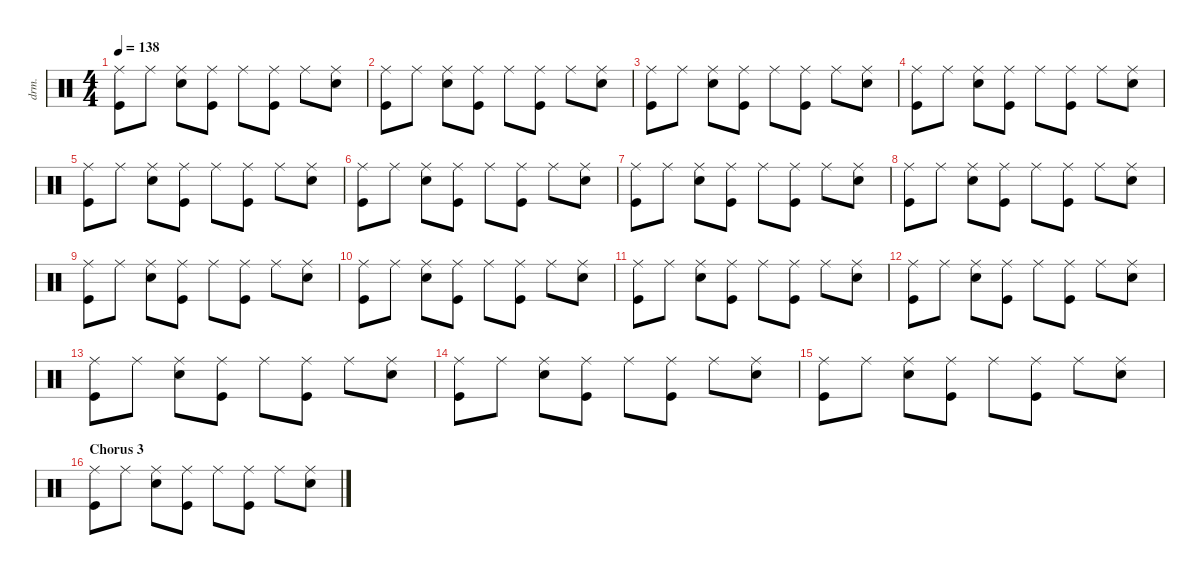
\defaultSystemsLayout 4
\hideDynamics
\bracketExtendMode nobrackets
\otherSystemsTrackNameOrientation horizontal
\track ("Drums" "drm.") {instrument percussion}
\staff {score}
\articulation defaults
\ts (4 4)
\tempo 138
\clef neutral
\ks c
("Ride (middle)" "Kick (hit)").8{dy f beam Down} "Ride (middle)".8{beam Down} ("Ride (middle)" "Snare (hit) 2").8{beam Down} ("Ride (middle)" "Kick (hit)").8{beam Down} "Ride (middle)".8{beam Down} ("Ride (middle)" "Kick (hit)").8{beam Down} "Ride (middle)".8{beam Down} ("Ride (middle)" "Snare (hit) 2").8{beam Down} |
("Ride (middle)" "Kick (hit)").8{beam Down} "Ride (middle)".8{beam Down} ("Ride (middle)" "Snare (hit) 2").8{beam Down} ("Ride (middle)" "Kick (hit)").8{beam Down} "Ride (middle)".8{beam Down} ("Ride (middle)" "Kick (hit)").8{beam Down} "Ride (middle)".8{beam Down} ("Ride (middle)" "Snare (hit) 2").8{beam Down} |
("Ride (middle)" "Kick (hit)").8{beam Down} "Ride (middle)".8{beam Down} ("Ride (middle)" "Snare (hit) 2").8{beam Down} ("Ride (middle)" "Kick (hit)").8{beam Down} "Ride (middle)".8{beam Down} ("Ride (middle)" "Kick (hit)").8{beam Down} "Ride (middle)".8{beam Down} ("Ride (middle)" "Snare (hit) 2").8{beam Down} |
("Ride (middle)" "Kick (hit)").8{beam Down} "Ride (middle)".8{beam Down} ("Ride (middle)" "Snare (hit) 2").8{beam Down} ("Ride (middle)" "Kick (hit)").8{beam Down} "Ride (middle)".8{beam Down} ("Ride (middle)" "Kick (hit)").8{beam Down} "Ride (middle)".8{beam Down} ("Ride (middle)" "Snare (hit) 2").8{beam Down} |
("Ride (middle)" "Kick (hit)").8{beam Down} "Ride (middle)".8{beam Down} ("Ride (middle)" "Snare (hit) 2").8{beam Down} ("Ride (middle)" "Kick (hit)").8{beam Down} "Ride (middle)".8{beam Down} ("Ride (middle)" "Kick (hit)").8{beam Down} "Ride (middle)".8{beam Down} ("Ride (middle)" "Snare (hit) 2").8{beam Down} |
("Ride (middle)" "Kick (hit)").8{beam Down} "Ride (middle)".8{beam Down} ("Ride (middle)" "Snare (hit) 2").8{beam Down} ("Ride (middle)" "Kick (hit)").8{beam Down} "Ride (middle)".8{beam Down} ("Ride (middle)" "Kick (hit)").8{beam Down} "Ride (middle)".8{beam Down} ("Ride (middle)" "Snare (hit) 2").8{beam Down} |
("Ride (middle)" "Kick (hit)").8{beam Down} "Ride (middle)".8{beam Down} ("Ride (middle)" "Snare (hit) 2").8{beam Down} ("Ride (middle)" "Kick (hit)").8{beam Down} "Ride (middle)".8{beam Down} ("Ride (middle)" "Kick (hit)").8{beam Down} "Ride (middle)".8{beam Down} ("Ride (middle)" "Snare (hit) 2").8{beam Down} |
("Ride (middle)" "Kick (hit)").8{beam Down} "Ride (middle)".8{beam Down} ("Ride (middle)" "Snare (hit) 2").8{beam Down} ("Ride (middle)" "Kick (hit)").8{beam Down} "Ride (middle)".8{beam Down} ("Ride (middle)" "Kick (hit)").8{beam Down} "Ride (middle)".8{beam Down} ("Ride (middle)" "Snare (hit) 2").8{beam Down} |
("Ride (middle)" "Kick (hit)").8{beam Down} "Ride (middle)".8{beam Down} ("Ride (middle)" "Snare (hit) 2").8{beam Down} ("Ride (middle)" "Kick (hit)").8{beam Down} "Ride (middle)".8{beam Down} ("Ride (middle)" "Kick (hit)").8{beam Down} "Ride (middle)".8{beam Down} ("Ride (middle)" "Snare (hit) 2").8{beam Down} |
("Ride (middle)" "Kick (hit)").8{beam Down} "Ride (middle)".8{beam Down} ("Ride (middle)" "Snare (hit) 2").8{beam Down} ("Ride (middle)" "Kick (hit)").8{beam Down} "Ride (middle)".8{beam Down} ("Ride (middle)" "Kick (hit)").8{beam Down} "Ride (middle)".8{beam Down} ("Ride (middle)" "Snare (hit) 2").8{beam Down} |
("Ride (middle)" "Kick (hit)").8{beam Down} "Ride (middle)".8{beam Down} ("Ride (middle)" "Snare (hit) 2").8{beam Down} ("Ride (middle)" "Kick (hit)").8{beam Down} "Ride (middle)".8{beam Down} ("Ride (middle)" "Kick (hit)").8{beam Down} "Ride (middle)".8{beam Down} ("Ride (middle)" "Snare (hit) 2").8{beam Down} |
("Ride (middle)" "Kick (hit)").8{beam Down} "Ride (middle)".8{beam Down} ("Ride (middle)" "Snare (hit) 2").8{beam Down} ("Ride (middle)" "Kick (hit)").8{beam Down} "Ride (middle)".8{beam Down} ("Ride (middle)" "Kick (hit)").8{beam Down} "Ride (middle)".8{beam Down} ("Ride (middle)" "Snare (hit) 2").8{beam Down} |
("Ride (middle)" "Kick (hit)").8{beam Down} "Ride (middle)".8{beam Down} ("Ride (middle)" "Snare (hit) 2").8{beam Down} ("Ride (middle)" "Kick (hit)").8{beam Down} "Ride (middle)".8{beam Down} ("Ride (middle)" "Kick (hit)").8{beam Down} "Ride (middle)".8{beam Down} ("Ride (middle)" "Snare (hit) 2").8{beam Down} |
("Ride (middle)" "Kick (hit)").8{beam Down} "Ride (middle)".8{beam Down} ("Ride (middle)" "Snare (hit) 2").8{beam Down} ("Ride (middle)" "Kick (hit)").8{beam Down} "Ride (middle)".8{beam Down} ("Ride (middle)" "Kick (hit)").8{beam Down} "Ride (middle)".8{beam Down} ("Ride (middle)" "Snare (hit) 2").8{beam Down} |
("Ride (middle)" "Kick (hit)").8{beam Down} "Ride (middle)".8{beam Down} ("Ride (middle)" "Snare (hit) 2").8{beam Down} ("Ride (middle)" "Kick (hit)").8{beam Down} "Ride (middle)".8{beam Down} ("Ride (middle)" "Kick (hit)").8{beam Down} "Ride (middle)".8{beam Down} ("Ride (middle)" "Snare (hit) 2").8{beam Down} |
\section ("" "Chorus 3")
("Ride (middle)" "Kick (hit)").8{beam Down} "Ride (middle)".8{beam Down} ("Ride (middle)" "Snare (hit) 2").8{beam Down} ("Ride (middle)" "Kick (hit)").8{beam Down} "Ride (middle)".8{beam Down} ("Ride (middle)" "Kick (hit)").8{beam Down} "Ride (middle)".8{beam Down} ("Ride (middle)" "Snare (hit) 2").8{beam Down}
